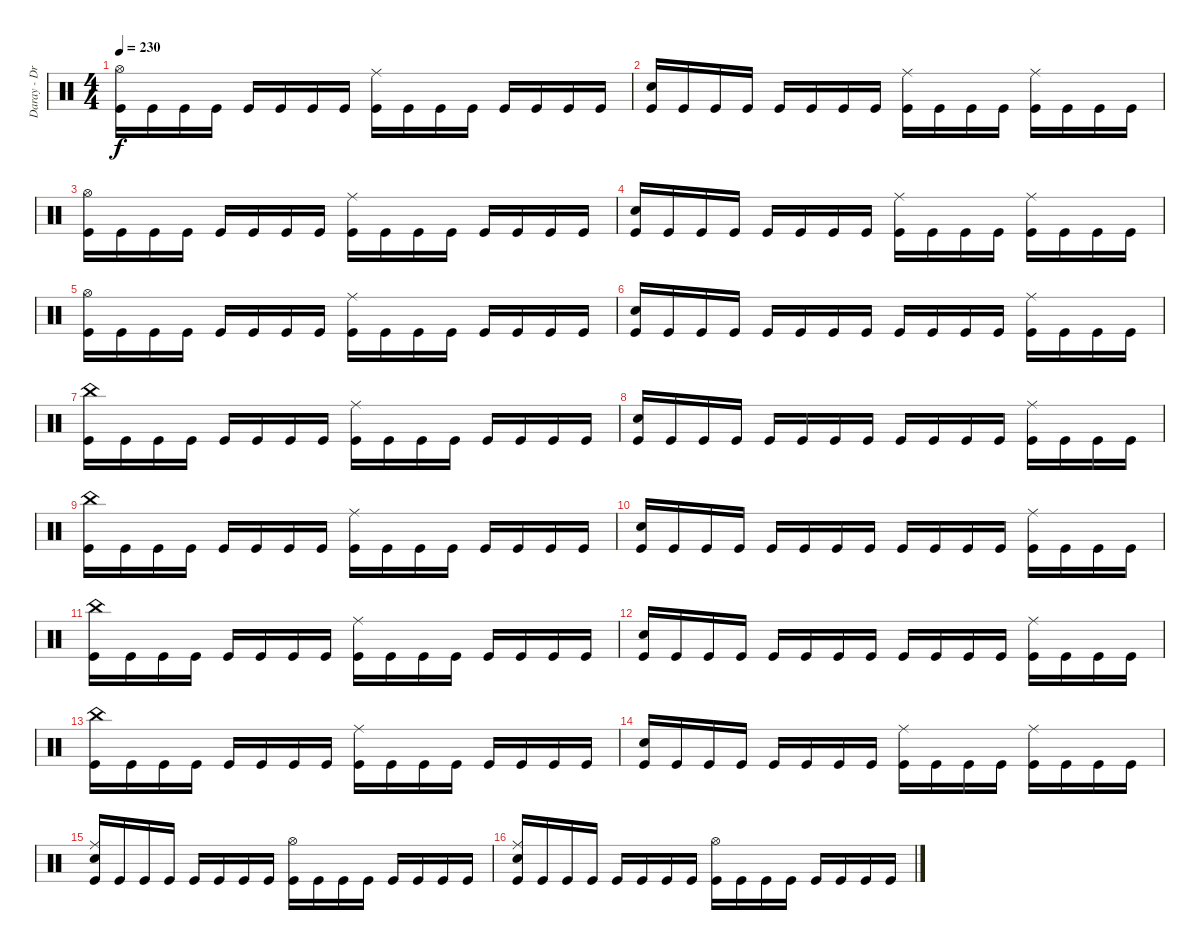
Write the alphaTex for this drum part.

\track ("Daray - Drums" "Daray - Dr") {instrument percussion}
\staff {score}
\articulation defaults
\ts (4 4)
\tempo 230
\clef neutral
\ks c
("Hi-Hat (open)" "Kick (hit)").16{dy f} "Kick (hit)".16 "Kick (hit)".16 "Kick (hit)".16 "Kick (hit)".16 "Kick (hit)".16 "Kick (hit)".16 "Kick (hit)".16 ("Ride (middle)" "Kick (hit)").16 "Kick (hit)".16 "Kick (hit)".16 "Kick (hit)".16 "Kick (hit)".16 "Kick (hit)".16 "Kick (hit)".16 "Kick (hit)".16 |
("Electric Snare (hit)" "Kick (hit)").16 "Kick (hit)".16 "Kick (hit)".16 "Kick (hit)".16 "Kick (hit)".16 "Kick (hit)".16 "Kick (hit)".16 "Kick (hit)".16 ("Ride (middle)" "Kick (hit)").16 "Kick (hit)".16 "Kick (hit)".16 "Kick (hit)".16 ("Ride (middle)" "Kick (hit)").16 "Kick (hit)".16 "Kick (hit)".16 "Kick (hit)".16 |
("Hi-Hat (open)" "Kick (hit)").16 "Kick (hit)".16 "Kick (hit)".16 "Kick (hit)".16 "Kick (hit)".16 "Kick (hit)".16 "Kick (hit)".16 "Kick (hit)".16 ("Ride (middle)" "Kick (hit)").16 "Kick (hit)".16 "Kick (hit)".16 "Kick (hit)".16 "Kick (hit)".16 "Kick (hit)".16 "Kick (hit)".16 "Kick (hit)".16 |
("Electric Snare (hit)" "Kick (hit)").16 "Kick (hit)".16 "Kick (hit)".16 "Kick (hit)".16 "Kick (hit)".16 "Kick (hit)".16 "Kick (hit)".16 "Kick (hit)".16 ("Ride (middle)" "Kick (hit)").16 "Kick (hit)".16 "Kick (hit)".16 "Kick (hit)".16 ("Ride (middle)" "Kick (hit)").16 "Kick (hit)".16 "Kick (hit)".16 "Kick (hit)".16 |
("Hi-Hat (open)" "Kick (hit)").16 "Kick (hit)".16 "Kick (hit)".16 "Kick (hit)".16 "Kick (hit)".16 "Kick (hit)".16 "Kick (hit)".16 "Kick (hit)".16 ("Ride (middle)" "Kick (hit)").16 "Kick (hit)".16 "Kick (hit)".16 "Kick (hit)".16 "Kick (hit)".16 "Kick (hit)".16 "Kick (hit)".16 "Kick (hit)".16 |
("Electric Snare (hit)" "Kick (hit)").16 "Kick (hit)".16 "Kick (hit)".16 "Kick (hit)".16 "Kick (hit)".16 "Kick (hit)".16 "Kick (hit)".16 "Kick (hit)".16 "Kick (hit)".16 "Kick (hit)".16 "Kick (hit)".16 "Kick (hit)".16 ("Ride (middle)" "Kick (hit)").16 "Kick (hit)".16 "Kick (hit)".16 "Kick (hit)".16 |
("China (hit)" "Kick (hit)").16 "Kick (hit)".16 "Kick (hit)".16 "Kick (hit)".16 "Kick (hit)".16 "Kick (hit)".16 "Kick (hit)".16 "Kick (hit)".16 ("Ride (middle)" "Kick (hit)").16 "Kick (hit)".16 "Kick (hit)".16 "Kick (hit)".16 "Kick (hit)".16 "Kick (hit)".16 "Kick (hit)".16 "Kick (hit)".16 |
("Electric Snare (hit)" "Kick (hit)").16 "Kick (hit)".16 "Kick (hit)".16 "Kick (hit)".16 "Kick (hit)".16 "Kick (hit)".16 "Kick (hit)".16 "Kick (hit)".16 "Kick (hit)".16 "Kick (hit)".16 "Kick (hit)".16 "Kick (hit)".16 ("Ride (middle)" "Kick (hit)").16 "Kick (hit)".16 "Kick (hit)".16 "Kick (hit)".16 |
("China (hit)" "Kick (hit)").16 "Kick (hit)".16 "Kick (hit)".16 "Kick (hit)".16 "Kick (hit)".16 "Kick (hit)".16 "Kick (hit)".16 "Kick (hit)".16 ("Ride (middle)" "Kick (hit)").16 "Kick (hit)".16 "Kick (hit)".16 "Kick (hit)".16 "Kick (hit)".16 "Kick (hit)".16 "Kick (hit)".16 "Kick (hit)".16 |
("Electric Snare (hit)" "Kick (hit)").16 "Kick (hit)".16 "Kick (hit)".16 "Kick (hit)".16 "Kick (hit)".16 "Kick (hit)".16 "Kick (hit)".16 "Kick (hit)".16 "Kick (hit)".16 "Kick (hit)".16 "Kick (hit)".16 "Kick (hit)".16 ("Ride (middle)" "Kick (hit)").16 "Kick (hit)".16 "Kick (hit)".16 "Kick (hit)".16 |
("China (hit)" "Kick (hit)").16 "Kick (hit)".16 "Kick (hit)".16 "Kick (hit)".16 "Kick (hit)".16 "Kick (hit)".16 "Kick (hit)".16 "Kick (hit)".16 ("Ride (middle)" "Kick (hit)").16 "Kick (hit)".16 "Kick (hit)".16 "Kick (hit)".16 "Kick (hit)".16 "Kick (hit)".16 "Kick (hit)".16 "Kick (hit)".16 |
("Electric Snare (hit)" "Kick (hit)").16 "Kick (hit)".16 "Kick (hit)".16 "Kick (hit)".16 "Kick (hit)".16 "Kick (hit)".16 "Kick (hit)".16 "Kick (hit)".16 "Kick (hit)".16 "Kick (hit)".16 "Kick (hit)".16 "Kick (hit)".16 ("Ride (middle)" "Kick (hit)").16 "Kick (hit)".16 "Kick (hit)".16 "Kick (hit)".16 |
("China (hit)" "Kick (hit)").16 "Kick (hit)".16 "Kick (hit)".16 "Kick (hit)".16 "Kick (hit)".16 "Kick (hit)".16 "Kick (hit)".16 "Kick (hit)".16 ("Ride (middle)" "Kick (hit)").16 "Kick (hit)".16 "Kick (hit)".16 "Kick (hit)".16 "Kick (hit)".16 "Kick (hit)".16 "Kick (hit)".16 "Kick (hit)".16 |
("Electric Snare (hit)" "Kick (hit)").16 "Kick (hit)".16 "Kick (hit)".16 "Kick (hit)".16 "Kick (hit)".16 "Kick (hit)".16 "Kick (hit)".16 "Kick (hit)".16 ("Ride (middle)" "Kick (hit)").16 "Kick (hit)".16 "Kick (hit)".16 "Kick (hit)".16 ("Ride (middle)" "Kick (hit)").16 "Kick (hit)".16 "Kick (hit)".16 "Kick (hit)".16 |
("Ride (middle)" "Electric Snare (hit)" "Kick (hit)").16 "Kick (hit)".16 "Kick (hit)".16 "Kick (hit)".16 "Kick (hit)".16 "Kick (hit)".16 "Kick (hit)".16 "Kick (hit)".16 ("Hi-Hat (open)" "Kick (hit)").16 "Kick (hit)".16 "Kick (hit)".16 "Kick (hit)".16 "Kick (hit)".16 "Kick (hit)".16 "Kick (hit)".16 "Kick (hit)".16 |
("Ride (middle)" "Electric Snare (hit)" "Kick (hit)").16 "Kick (hit)".16 "Kick (hit)".16 "Kick (hit)".16 "Kick (hit)".16 "Kick (hit)".16 "Kick (hit)".16 "Kick (hit)".16 ("Hi-Hat (open)" "Kick (hit)").16 "Kick (hit)".16 "Kick (hit)".16 "Kick (hit)".16 "Kick (hit)".16 "Kick (hit)".16 "Kick (hit)".16 "Kick (hit)".16
